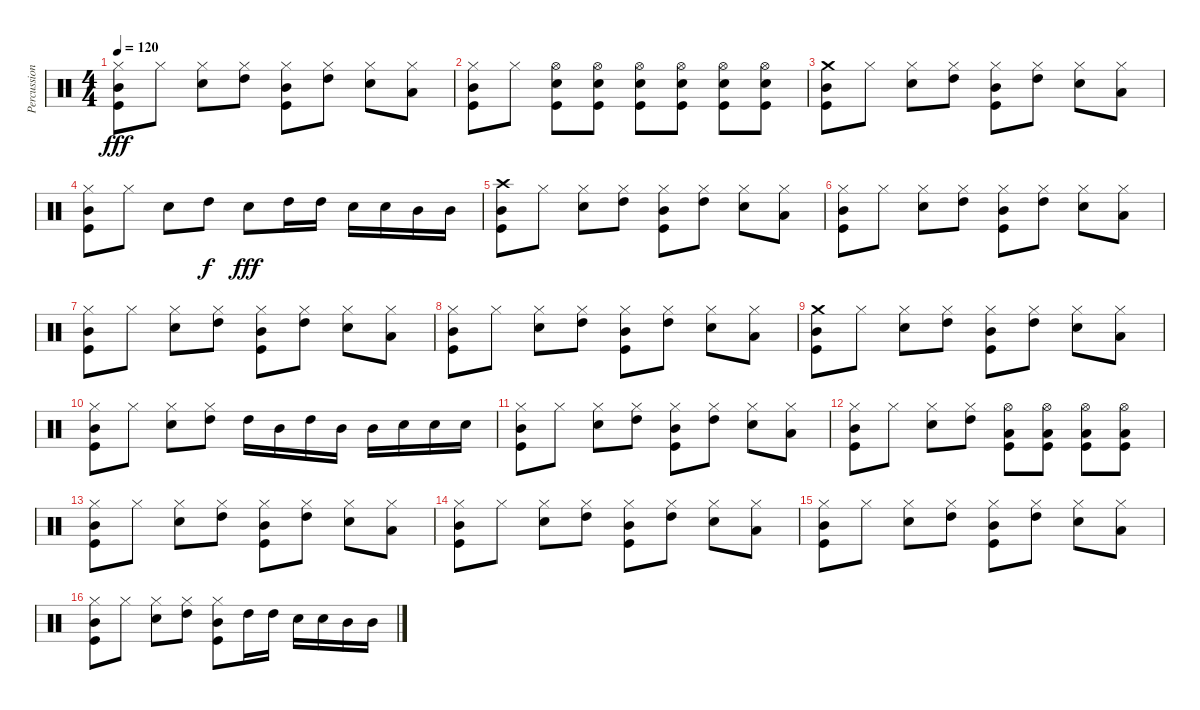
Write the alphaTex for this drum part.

\track ("Percussion" "Percussion") {instrument percussion}
\staff {score}
\articulation defaults
\ts (4 4)
\tempo 120
\clef neutral
\ks c
("Hi-Hat (closed)" "Mid Tom (hit)" "Kick (hit)").8{dy fff volume 12} "Hi-Hat (closed)".8 ("Hi-Hat (closed)" "Electric Snare (hit)").8 ("Hi-Hat (closed)" "High Tom (hit)").8 ("Hi-Hat (closed)" "Mid Tom (hit)" "Kick (hit)").8 ("Hi-Hat (closed)" "High Tom (hit)").8 ("Hi-Hat (closed)" "Electric Snare (hit)").8 ("Hi-Hat (closed)" "Low Tom (hit)").8 |
("Hi-Hat (closed)" "Mid Tom (hit)" "Kick (hit)").8 "Hi-Hat (closed)".8 ("Hi-Hat (open)" "Electric Snare (hit)" "Kick (hit)").8{volume 16} ("Hi-Hat (open)" "Electric Snare (hit)" "Kick (hit)").8 ("Hi-Hat (open)" "Electric Snare (hit)" "Kick (hit)").8 ("Hi-Hat (open)" "Electric Snare (hit)" "Kick (hit)").8 ("Hi-Hat (open)" "Electric Snare (hit)" "Kick (hit)").8 ("Hi-Hat (open)" "Electric Snare (hit)" "Kick (hit)").8 |
("Crash medium (hit)" "Mid Tom (hit)" "Kick (hit)").8{volume 12} "Hi-Hat (closed)".8 ("Hi-Hat (closed)" "Electric Snare (hit)").8 ("Hi-Hat (closed)" "High Tom (hit)").8 ("Hi-Hat (closed)" "Mid Tom (hit)" "Kick (hit)").8 ("Hi-Hat (closed)" "High Tom (hit)").8 ("Hi-Hat (closed)" "Electric Snare (hit)").8 ("Hi-Hat (closed)" "Low Tom (hit)").8 |
("Hi-Hat (closed)" "Mid Tom (hit)" "Kick (hit)").8 "Hi-Hat (closed)".8 "Electric Snare (hit)".8{volume 16} "High Tom (hit)".8{dy f} "Electric Snare (hit)".8{dy fff} "High Tom (hit)".16 "High Tom (hit)".16 "Electric Snare (hit)".16 "Electric Snare (hit)".16 "Mid Tom (hit)".16 "Mid Tom (hit)".16 |
("Crash high (hit)" "Mid Tom (hit)" "Kick (hit)").8{volume 12} "Hi-Hat (closed)".8 ("Hi-Hat (closed)" "Electric Snare (hit)").8 ("Hi-Hat (closed)" "High Tom (hit)").8 ("Hi-Hat (closed)" "Mid Tom (hit)" "Kick (hit)").8 ("Hi-Hat (closed)" "High Tom (hit)").8 ("Hi-Hat (closed)" "Electric Snare (hit)").8 ("Hi-Hat (closed)" "Low Tom (hit)").8 |
("Hi-Hat (closed)" "Mid Tom (hit)" "Kick (hit)").8 "Hi-Hat (closed)".8 ("Hi-Hat (closed)" "Electric Snare (hit)").8 ("Hi-Hat (closed)" "High Tom (hit)").8 ("Hi-Hat (closed)" "Mid Tom (hit)" "Kick (hit)").8 ("Hi-Hat (closed)" "High Tom (hit)").8 ("Hi-Hat (closed)" "Electric Snare (hit)").8 ("Hi-Hat (closed)" "Low Tom (hit)").8 |
("Hi-Hat (closed)" "Mid Tom (hit)" "Kick (hit)").8 "Hi-Hat (closed)".8 ("Hi-Hat (closed)" "Electric Snare (hit)").8 ("Hi-Hat (closed)" "High Tom (hit)").8 ("Hi-Hat (closed)" "Mid Tom (hit)" "Kick (hit)").8 ("Hi-Hat (closed)" "High Tom (hit)").8 ("Hi-Hat (closed)" "Electric Snare (hit)").8 ("Hi-Hat (closed)" "Low Tom (hit)").8 |
("Hi-Hat (closed)" "Mid Tom (hit)" "Kick (hit)").8 "Hi-Hat (closed)".8 ("Hi-Hat (closed)" "Electric Snare (hit)").8 ("Hi-Hat (closed)" "High Tom (hit)").8 ("Hi-Hat (closed)" "Mid Tom (hit)" "Kick (hit)").8 ("Hi-Hat (closed)" "High Tom (hit)").8 ("Hi-Hat (closed)" "Electric Snare (hit)").8 ("Hi-Hat (closed)" "Low Tom (hit)").8 |
("Crash medium (hit)" "Mid Tom (hit)" "Kick (hit)").8 "Hi-Hat (closed)".8 ("Hi-Hat (closed)" "Electric Snare (hit)").8 ("Hi-Hat (closed)" "High Tom (hit)").8 ("Hi-Hat (closed)" "Mid Tom (hit)" "Kick (hit)").8 ("Hi-Hat (closed)" "High Tom (hit)").8 ("Hi-Hat (closed)" "Electric Snare (hit)").8 ("Hi-Hat (closed)" "Low Tom (hit)").8 |
("Hi-Hat (closed)" "Mid Tom (hit)" "Kick (hit)").8 "Hi-Hat (closed)".8 ("Hi-Hat (closed)" "Electric Snare (hit)").8 ("Hi-Hat (closed)" "High Tom (hit)").8 "High Tom (hit)".16{volume 16} "Mid Tom (hit)".16 "High Tom (hit)".16 "Mid Tom (hit)".16 "Mid Tom (hit)".16 "Electric Snare (hit)".16 "Electric Snare (hit)".16 "Electric Snare (hit)".16 |
("Hi-Hat (closed)" "Mid Tom (hit)" "Kick (hit)").8{volume 12} "Hi-Hat (closed)".8 ("Hi-Hat (closed)" "Electric Snare (hit)").8 ("Hi-Hat (closed)" "High Tom (hit)").8 ("Hi-Hat (closed)" "Mid Tom (hit)" "Kick (hit)").8 ("Hi-Hat (closed)" "High Tom (hit)").8 ("Hi-Hat (closed)" "Electric Snare (hit)").8 ("Hi-Hat (closed)" "Low Tom (hit)").8 |
("Hi-Hat (closed)" "Mid Tom (hit)" "Kick (hit)").8 "Hi-Hat (closed)".8 ("Hi-Hat (closed)" "Electric Snare (hit)").8 ("Hi-Hat (closed)" "High Tom (hit)").8 ("Hi-Hat (open)" "Low Tom (hit)" "Kick (hit)").8{volume 14} ("Hi-Hat (open)" "Low Tom (hit)" "Kick (hit)").8 ("Hi-Hat (open)" "Low Tom (hit)" "Kick (hit)").8 ("Hi-Hat (open)" "Low Tom (hit)" "Kick (hit)").8 |
("Hi-Hat (closed)" "Mid Tom (hit)" "Kick (hit)").8{volume 12} "Hi-Hat (closed)".8 ("Hi-Hat (closed)" "Electric Snare (hit)").8 ("Hi-Hat (closed)" "High Tom (hit)").8 ("Hi-Hat (closed)" "Mid Tom (hit)" "Kick (hit)").8 ("Hi-Hat (closed)" "High Tom (hit)").8 ("Hi-Hat (closed)" "Electric Snare (hit)").8 ("Hi-Hat (closed)" "Low Tom (hit)").8 |
("Hi-Hat (closed)" "Mid Tom (hit)" "Kick (hit)").8 "Hi-Hat (closed)".8 ("Hi-Hat (closed)" "Electric Snare (hit)").8 ("Hi-Hat (closed)" "High Tom (hit)").8 ("Hi-Hat (closed)" "Mid Tom (hit)" "Kick (hit)").8 ("Hi-Hat (closed)" "High Tom (hit)").8 ("Hi-Hat (closed)" "Electric Snare (hit)").8 ("Hi-Hat (closed)" "Low Tom (hit)").8 |
("Hi-Hat (closed)" "Mid Tom (hit)" "Kick (hit)").8 "Hi-Hat (closed)".8 ("Hi-Hat (closed)" "Electric Snare (hit)").8 ("Hi-Hat (closed)" "High Tom (hit)").8 ("Hi-Hat (closed)" "Mid Tom (hit)" "Kick (hit)").8 ("Hi-Hat (closed)" "High Tom (hit)").8 ("Hi-Hat (closed)" "Electric Snare (hit)").8 ("Hi-Hat (closed)" "Low Tom (hit)").8 |
("Hi-Hat (closed)" "Mid Tom (hit)" "Kick (hit)").8 "Hi-Hat (closed)".8 ("Hi-Hat (closed)" "Electric Snare (hit)").8 ("Hi-Hat (closed)" "High Tom (hit)").8 ("Hi-Hat (closed)" "Mid Tom (hit)" "Kick (hit)").8 "High Tom (hit)".16{volume 16} "High Tom (hit)".16 "Electric Snare (hit)".16 "Electric Snare (hit)".16 "Mid Tom (hit)".16 "Mid Tom (hit)".16
